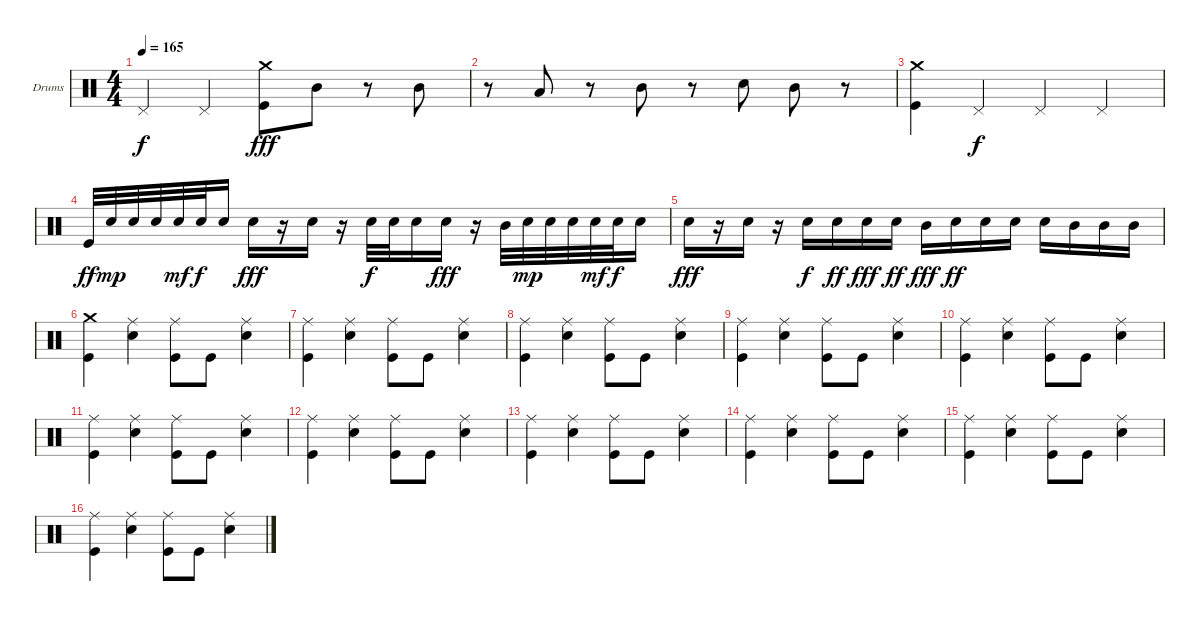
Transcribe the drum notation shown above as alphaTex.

\bracketExtendMode groupsimilarinstruments
\firstSystemTrackNameOrientation horizontal
\otherSystemsTrackNameOrientation horizontal
\track ("Drumkit" "Drums") {instrument percussion}
\staff {score}
\articulation defaults
\ts (4 4)
\tempo 165
\clef neutral
\ks c "Pedal Hi-Hat (hit)".4{dy f} "Pedal Hi-Hat (hit)".4
("Kick (hit)" "Crash medium (hit)").8{dy fff} "Mid Tom (hit)".8 r.8 "Mid Tom (hit)".8 |
r.8 "Low Tom (hit)".8 r.8 "Mid Tom (hit)".8 r.8 "Snare (hit) 2".8 "Mid Tom (hit)".8 r.8 |
("Crash medium (hit)" "Kick (hit)").4 "Pedal Hi-Hat (hit)".4{dy f} "Pedal Hi-Hat (hit)".4 "Pedal Hi-Hat (hit)".4 |
"Kick (hit)".32{dy ff} "Snare (hit) 2".32{dy mp} "Snare (hit) 2".32 "Snare (hit) 2".32 "Snare (hit) 2".32{dy mf} "Snare (hit) 2".32{dy f} "Snare (hit) 2".16 "Snare (hit) 2".16{dy fff} r.16 "Snare (hit) 2".16 r.16 "Snare (hit) 2".32{dy f} "Snare (hit) 2".32 "Snare (hit) 2".16 "Snare (hit) 2".16{dy fff} r.16 "Mid Tom (hit)".32 "Snare (hit) 2".32{dy mp} "Snare (hit) 2".32 "Snare (hit) 2".32 "Snare (hit) 2".32{dy mf} "Snare (hit) 2".32{dy f} "Snare (hit) 2".16 |
"Snare (hit) 2".16{dy fff} r.16 "Snare (hit) 2".16 r.16 "Snare (hit) 2".16{dy f} "Snare (hit) 2".16{dy ff} "Snare (hit) 2".16{dy fff} "Snare (hit) 2".16{dy ff} "Mid Tom (hit)".16{dy fff} "Snare (hit) 2".16{dy ff} "Snare (hit) 2".16 "Snare (hit) 2".16 "Snare (hit) 2".16 "Mid Tom (hit)".16 "Mid Tom (hit)".16 "Mid Tom (hit)".16 |
("Crash medium (hit)" "Kick (hit)").4 ("Ride (middle)" "Snare (hit) 2").4 ("Ride (middle)" "Kick (hit)").8 "Kick (hit)".8 ("Snare (hit) 2" "Ride (middle)").4 |
("Ride (middle)" "Kick (hit)").4 ("Ride (middle)" "Snare (hit) 2").4 ("Ride (middle)" "Kick (hit)").8 "Kick (hit)".8 ("Snare (hit) 2" "Ride (middle)").4 |
("Ride (middle)" "Kick (hit)").4 ("Ride (middle)" "Snare (hit) 2").4 ("Ride (middle)" "Kick (hit)").8 "Kick (hit)".8 ("Snare (hit) 2" "Ride (middle)").4 |
("Ride (middle)" "Kick (hit)").4 ("Ride (middle)" "Snare (hit) 2").4 ("Ride (middle)" "Kick (hit)").8 "Kick (hit)".8 ("Snare (hit) 2" "Ride (middle)").4 |
("Ride (middle)" "Kick (hit)").4 ("Ride (middle)" "Snare (hit) 2").4 ("Ride (middle)" "Kick (hit)").8 "Kick (hit)".8 ("Snare (hit) 2" "Ride (middle)").4 |
("Ride (middle)" "Kick (hit)").4 ("Ride (middle)" "Snare (hit) 2").4 ("Ride (middle)" "Kick (hit)").8 "Kick (hit)".8 ("Snare (hit) 2" "Ride (middle)").4 |
("Ride (middle)" "Kick (hit)").4 ("Ride (middle)" "Snare (hit) 2").4 ("Ride (middle)" "Kick (hit)").8 "Kick (hit)".8 ("Snare (hit) 2" "Ride (middle)").4 |
("Ride (middle)" "Kick (hit)").4 ("Ride (middle)" "Snare (hit) 2").4 ("Ride (middle)" "Kick (hit)").8 "Kick (hit)".8 ("Snare (hit) 2" "Ride (middle)").4 |
("Ride (middle)" "Kick (hit)").4 ("Ride (middle)" "Snare (hit) 2").4 ("Ride (middle)" "Kick (hit)").8 "Kick (hit)".8 ("Snare (hit) 2" "Ride (middle)").4 |
("Ride (middle)" "Kick (hit)").4 ("Ride (middle)" "Snare (hit) 2").4 ("Ride (middle)" "Kick (hit)").8 "Kick (hit)".8 ("Snare (hit) 2" "Ride (middle)").4 |
("Ride (middle)" "Kick (hit)").4 ("Ride (middle)" "Snare (hit) 2").4 ("Ride (middle)" "Kick (hit)").8 "Kick (hit)".8 ("Snare (hit) 2" "Ride (middle)").4
